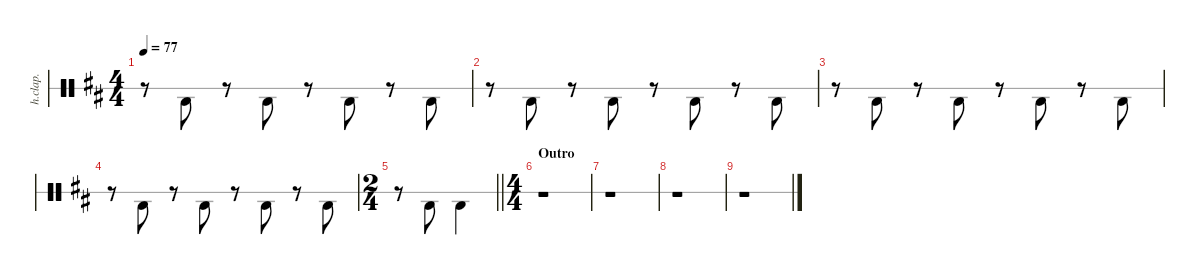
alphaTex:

\defaultSystemsLayout 4
\hideDynamics
\bracketExtendMode nobrackets
\otherSystemsTrackNameOrientation horizontal
\track ("Hand Clap" "h.clap.") {defaultSystemsLayout 8 instrument percussion}
\staff {score 1}
\articulation defaults
\ts (4 4)
\tempo 77
\clef neutral
\ks bminor
r.8{dy mf beam Down} "Hand Clap (hit)"{acc forcenatural}.8{beam Down beam split} r.8{beam Down beam split} "Hand Clap (hit)"{acc forcenatural}.8{beam Down beam split} r.8{beam Down beam split} "Hand Clap (hit)"{acc forcenatural}.8{beam Down beam split} r.8{beam Down beam split} "Hand Clap (hit)"{acc forcenatural}.8{beam Down} |
r.8{beam Down} "Hand Clap (hit)"{acc forcenatural}.8{beam Down beam split} r.8{beam Down beam split} "Hand Clap (hit)"{acc forcenatural}.8{beam Down beam split} r.8{beam Down beam split} "Hand Clap (hit)"{acc forcenatural}.8{beam Down beam split} r.8{beam Down beam split} "Hand Clap (hit)"{acc forcenatural}.8{beam Down} |
r.8{beam Down} "Hand Clap (hit)"{acc forcenatural}.8{beam Down beam split} r.8{beam Down beam split} "Hand Clap (hit)"{acc forcenatural}.8{beam Down beam split} r.8{beam Down beam split} "Hand Clap (hit)"{acc forcenatural}.8{beam Down beam split} r.8{beam Down beam split} "Hand Clap (hit)"{acc forcenatural}.8{beam Down} |
r.8{beam Down} "Hand Clap (hit)"{acc forcenatural}.8{beam Down beam split} r.8{beam Down beam split} "Hand Clap (hit)"{acc forcenatural}.8{beam Down beam split} r.8{beam Down beam split} "Hand Clap (hit)"{acc forcenatural}.8{beam Down beam split} r.8{beam Down beam split} "Hand Clap (hit)"{acc forcenatural}.8{beam Down} |
\ts (2 4)
\beaming (8 2 2)
\barLineRight lightlight
r.8{beam Down} "Hand Clap (hit)"{acc forcenatural}.8{beam Down} "Hand Clap (hit)"{acc forcenatural}.4{beam Down} |
\ts (4 4)
\section ("" "Outro")
r.1{beam Down} |
r.1{beam Down} |
r.1{beam Down} |
r.1{beam Down}
